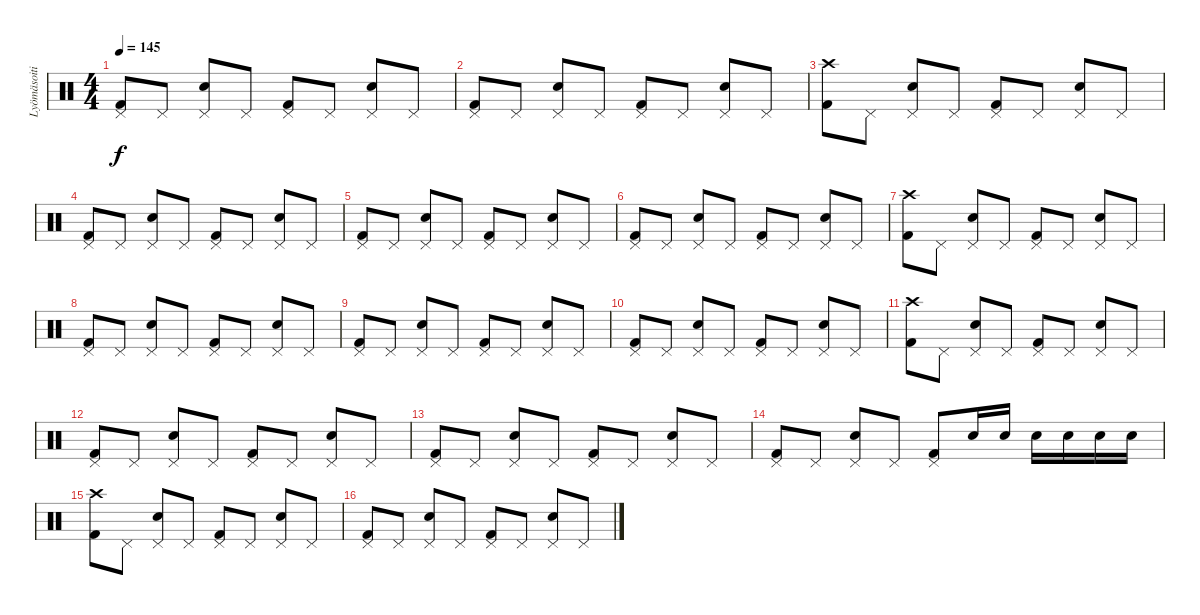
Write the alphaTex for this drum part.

\track ("Lyömäsoitin" "Lyömäsoiti") {instrument percussion}
\staff {score}
\articulation defaults
\ts (4 4)
\tempo 145
\clef neutral
\ks c
("Pedal Hi-Hat (hit)" "Kick (hit) 2").8{dy f} "Pedal Hi-Hat (hit)".8 ("Pedal Hi-Hat (hit)" "Electric Snare (hit)").8 "Pedal Hi-Hat (hit)".8 ("Pedal Hi-Hat (hit)" "Kick (hit) 2").8 "Pedal Hi-Hat (hit)".8 ("Pedal Hi-Hat (hit)" "Electric Snare (hit)").8 "Pedal Hi-Hat (hit)".8 |
("Pedal Hi-Hat (hit)" "Kick (hit) 2").8 "Pedal Hi-Hat (hit)".8 ("Pedal Hi-Hat (hit)" "Electric Snare (hit)").8 "Pedal Hi-Hat (hit)".8 ("Pedal Hi-Hat (hit)" "Kick (hit) 2").8 "Pedal Hi-Hat (hit)".8 ("Pedal Hi-Hat (hit)" "Electric Snare (hit)").8 "Pedal Hi-Hat (hit)".8 |
("Crash high (hit)" "Kick (hit) 2").8 "Pedal Hi-Hat (hit)".8 ("Pedal Hi-Hat (hit)" "Electric Snare (hit)").8 "Pedal Hi-Hat (hit)".8 ("Pedal Hi-Hat (hit)" "Kick (hit) 2").8 "Pedal Hi-Hat (hit)".8 ("Pedal Hi-Hat (hit)" "Electric Snare (hit)").8 "Pedal Hi-Hat (hit)".8 |
("Pedal Hi-Hat (hit)" "Kick (hit) 2").8 "Pedal Hi-Hat (hit)".8 ("Pedal Hi-Hat (hit)" "Electric Snare (hit)").8 "Pedal Hi-Hat (hit)".8 ("Pedal Hi-Hat (hit)" "Kick (hit) 2").8 "Pedal Hi-Hat (hit)".8 ("Pedal Hi-Hat (hit)" "Electric Snare (hit)").8 "Pedal Hi-Hat (hit)".8 |
("Pedal Hi-Hat (hit)" "Kick (hit) 2").8 "Pedal Hi-Hat (hit)".8 ("Pedal Hi-Hat (hit)" "Electric Snare (hit)").8 "Pedal Hi-Hat (hit)".8 ("Pedal Hi-Hat (hit)" "Kick (hit) 2").8 "Pedal Hi-Hat (hit)".8 ("Pedal Hi-Hat (hit)" "Electric Snare (hit)").8 "Pedal Hi-Hat (hit)".8 |
("Pedal Hi-Hat (hit)" "Kick (hit) 2").8 "Pedal Hi-Hat (hit)".8 ("Pedal Hi-Hat (hit)" "Electric Snare (hit)").8 "Pedal Hi-Hat (hit)".8 ("Pedal Hi-Hat (hit)" "Kick (hit) 2").8 "Pedal Hi-Hat (hit)".8 ("Pedal Hi-Hat (hit)" "Electric Snare (hit)").8 "Pedal Hi-Hat (hit)".8 |
("Crash high (hit)" "Kick (hit) 2").8 "Pedal Hi-Hat (hit)".8 ("Pedal Hi-Hat (hit)" "Electric Snare (hit)").8 "Pedal Hi-Hat (hit)".8 ("Pedal Hi-Hat (hit)" "Kick (hit) 2").8 "Pedal Hi-Hat (hit)".8 ("Pedal Hi-Hat (hit)" "Electric Snare (hit)").8 "Pedal Hi-Hat (hit)".8 |
("Pedal Hi-Hat (hit)" "Kick (hit) 2").8 "Pedal Hi-Hat (hit)".8 ("Pedal Hi-Hat (hit)" "Electric Snare (hit)").8 "Pedal Hi-Hat (hit)".8 ("Pedal Hi-Hat (hit)" "Kick (hit) 2").8 "Pedal Hi-Hat (hit)".8 ("Pedal Hi-Hat (hit)" "Electric Snare (hit)").8 "Pedal Hi-Hat (hit)".8 |
("Pedal Hi-Hat (hit)" "Kick (hit) 2").8 "Pedal Hi-Hat (hit)".8 ("Pedal Hi-Hat (hit)" "Electric Snare (hit)").8 "Pedal Hi-Hat (hit)".8 ("Pedal Hi-Hat (hit)" "Kick (hit) 2").8 "Pedal Hi-Hat (hit)".8 ("Pedal Hi-Hat (hit)" "Electric Snare (hit)").8 "Pedal Hi-Hat (hit)".8 |
("Pedal Hi-Hat (hit)" "Kick (hit) 2").8 "Pedal Hi-Hat (hit)".8 ("Pedal Hi-Hat (hit)" "Electric Snare (hit)").8 "Pedal Hi-Hat (hit)".8 ("Pedal Hi-Hat (hit)" "Kick (hit) 2").8 "Pedal Hi-Hat (hit)".8 ("Pedal Hi-Hat (hit)" "Electric Snare (hit)").8 "Pedal Hi-Hat (hit)".8 |
("Crash high (hit)" "Kick (hit) 2").8 "Pedal Hi-Hat (hit)".8 ("Pedal Hi-Hat (hit)" "Electric Snare (hit)").8 "Pedal Hi-Hat (hit)".8 ("Pedal Hi-Hat (hit)" "Kick (hit) 2").8 "Pedal Hi-Hat (hit)".8 ("Pedal Hi-Hat (hit)" "Electric Snare (hit)").8 "Pedal Hi-Hat (hit)".8 |
("Pedal Hi-Hat (hit)" "Kick (hit) 2").8 "Pedal Hi-Hat (hit)".8 ("Pedal Hi-Hat (hit)" "Electric Snare (hit)").8 "Pedal Hi-Hat (hit)".8 ("Pedal Hi-Hat (hit)" "Kick (hit) 2").8 "Pedal Hi-Hat (hit)".8 ("Pedal Hi-Hat (hit)" "Electric Snare (hit)").8 "Pedal Hi-Hat (hit)".8 |
("Pedal Hi-Hat (hit)" "Kick (hit) 2").8 "Pedal Hi-Hat (hit)".8 ("Pedal Hi-Hat (hit)" "Electric Snare (hit)").8 "Pedal Hi-Hat (hit)".8 ("Pedal Hi-Hat (hit)" "Kick (hit) 2").8 "Pedal Hi-Hat (hit)".8 ("Pedal Hi-Hat (hit)" "Electric Snare (hit)").8 "Pedal Hi-Hat (hit)".8 |
("Pedal Hi-Hat (hit)" "Kick (hit) 2").8 "Pedal Hi-Hat (hit)".8 ("Pedal Hi-Hat (hit)" "Electric Snare (hit)").8 "Pedal Hi-Hat (hit)".8 ("Pedal Hi-Hat (hit)" "Kick (hit) 2").8 "Electric Snare (hit)".16 "Electric Snare (hit)".16 "Electric Snare (hit)".16 "Electric Snare (hit)".16 "Electric Snare (hit)".16 "Electric Snare (hit)".16 |
("Crash high (hit)" "Kick (hit) 2").8 "Pedal Hi-Hat (hit)".8 ("Pedal Hi-Hat (hit)" "Electric Snare (hit)").8 "Pedal Hi-Hat (hit)".8 ("Pedal Hi-Hat (hit)" "Kick (hit) 2").8 "Pedal Hi-Hat (hit)".8 ("Pedal Hi-Hat (hit)" "Electric Snare (hit)").8 "Pedal Hi-Hat (hit)".8 |
("Pedal Hi-Hat (hit)" "Kick (hit) 2").8 "Pedal Hi-Hat (hit)".8 ("Pedal Hi-Hat (hit)" "Electric Snare (hit)").8 "Pedal Hi-Hat (hit)".8 ("Pedal Hi-Hat (hit)" "Kick (hit) 2").8 "Pedal Hi-Hat (hit)".8 ("Pedal Hi-Hat (hit)" "Electric Snare (hit)").8 "Pedal Hi-Hat (hit)".8
